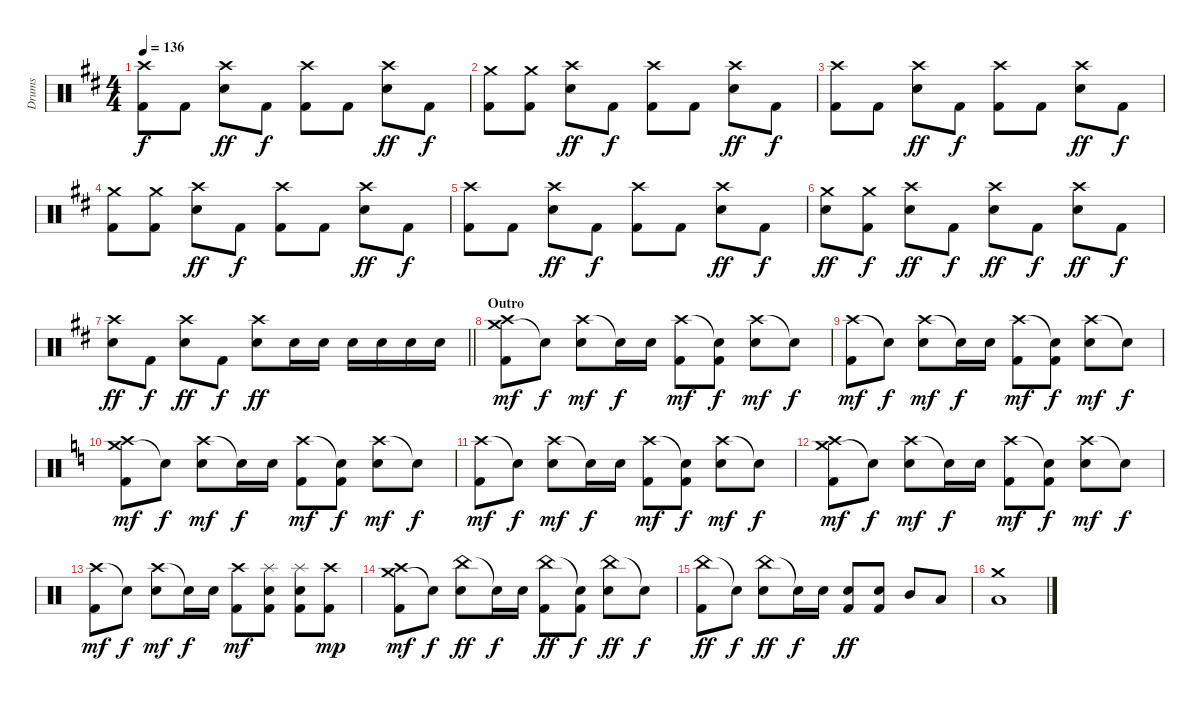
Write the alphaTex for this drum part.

\track ("Drums" "Drums") {instrument percussion}
\staff {score}
\articulation defaults
\ts (4 4)
\tempo 136
\clef neutral
\ks d
("Crash high (hit)" "Kick (hit) 2").8{dy f} "Kick (hit) 2".8 ("Crash high (hit)" "Electric Snare (hit)").8{dy ff} "Kick (hit) 2".8{dy f} ("Crash high (hit)" "Kick (hit) 2").8 "Kick (hit) 2".8 ("Crash high (hit)" "Electric Snare (hit)").8{dy ff} "Kick (hit) 2".8{dy f} |
("Crash medium (hit)" "Kick (hit) 2").8 ("Crash medium (hit)" "Kick (hit) 2").8 ("Crash high (hit)" "Electric Snare (hit)").8{dy ff} "Kick (hit) 2".8{dy f} ("Crash high (hit)" "Kick (hit) 2").8 "Kick (hit) 2".8 ("Crash high (hit)" "Electric Snare (hit)").8{dy ff} "Kick (hit) 2".8{dy f} |
("Crash high (hit)" "Kick (hit) 2").8 "Kick (hit) 2".8 ("Crash high (hit)" "Electric Snare (hit)").8{dy ff} "Kick (hit) 2".8{dy f} ("Crash high (hit)" "Kick (hit) 2").8 "Kick (hit) 2".8 ("Crash high (hit)" "Electric Snare (hit)").8{dy ff} "Kick (hit) 2".8{dy f} |
("Crash medium (hit)" "Kick (hit) 2").8 ("Crash medium (hit)" "Kick (hit) 2").8 ("Crash high (hit)" "Electric Snare (hit)").8{dy ff} "Kick (hit) 2".8{dy f} ("Crash high (hit)" "Kick (hit) 2").8 "Kick (hit) 2".8 ("Crash high (hit)" "Electric Snare (hit)").8{dy ff} "Kick (hit) 2".8{dy f} |
("Crash high (hit)" "Kick (hit) 2").8 "Kick (hit) 2".8 ("Crash high (hit)" "Electric Snare (hit)").8{dy ff} "Kick (hit) 2".8{dy f} ("Crash high (hit)" "Kick (hit) 2").8 "Kick (hit) 2".8 ("Crash high (hit)" "Electric Snare (hit)").8{dy ff} "Kick (hit) 2".8{dy f} |
("Crash medium (hit)" "Electric Snare (hit)").8{dy ff} ("Crash medium (hit)" "Kick (hit) 2").8{dy f} ("Crash high (hit)" "Electric Snare (hit)").8{dy ff} "Kick (hit) 2".8{dy f} ("Crash high (hit)" "Electric Snare (hit)").8{dy ff} "Kick (hit) 2".8{dy f} ("Crash high (hit)" "Electric Snare (hit)").8{dy ff} "Kick (hit) 2".8{dy f} |
\barLineRight lightlight
("Crash high (hit)" "Electric Snare (hit)").8{dy ff} "Kick (hit) 2".8{dy f} ("Crash high (hit)" "Electric Snare (hit)").8{dy ff} "Kick (hit) 2".8{dy f} ("Crash high (hit)" "Electric Snare (hit)").8{dy ff} "Electric Snare (hit)".16 "Electric Snare (hit)".16 "Electric Snare (hit)".16 "Electric Snare (hit)".16 "Electric Snare (hit)".16 "Electric Snare (hit)".16 |
\section ("" "Outro")
("Crash medium (hit)" "Crash high (hit)" "Kick (hit) 2").8{dy mf} "Snare (hit)"{t}.8{dy f} ("Crash high (hit)" "Electric Snare (hit)").8{dy mf} "Snare (hit)"{t}.16{dy f} "Electric Snare (hit)".16 ("Crash high (hit)" "Kick (hit) 2").8{dy mf} ("Snare (hit)"{t} "Kick (hit) 2").8{dy f} ("Crash high (hit)" "Electric Snare (hit)").8{dy mf} "Snare (hit)"{t}.8{dy f} |
("Crash high (hit)" "Kick (hit) 2").8{dy mf} "Snare (hit)"{t}.8{dy f} ("Crash high (hit)" "Electric Snare (hit)").8{dy mf} "Snare (hit)"{t}.16{dy f} "Electric Snare (hit)".16 ("Crash high (hit)" "Kick (hit) 2").8{dy mf} ("Snare (hit)"{t} "Kick (hit) 2").8{dy f} ("Crash high (hit)" "Electric Snare (hit)").8{dy mf} "Snare (hit)"{t}.8{dy f} |
\ks c
("Crash medium (hit)" "Crash high (hit)" "Kick (hit) 2").8{dy mf} "Snare (hit)"{t}.8{dy f} ("Crash high (hit)" "Electric Snare (hit)").8{dy mf} "Snare (hit)"{t}.16{dy f} "Electric Snare (hit)".16 ("Crash high (hit)" "Kick (hit) 2").8{dy mf} ("Snare (hit)"{t} "Kick (hit) 2").8{dy f} ("Crash high (hit)" "Electric Snare (hit)").8{dy mf} "Snare (hit)"{t}.8{dy f} |
("Crash high (hit)" "Kick (hit) 2").8{dy mf} "Snare (hit)"{t}.8{dy f} ("Crash high (hit)" "Electric Snare (hit)").8{dy mf} "Snare (hit)"{t}.16{dy f} "Electric Snare (hit)".16 ("Crash high (hit)" "Kick (hit) 2").8{dy mf} ("Snare (hit)"{t} "Kick (hit) 2").8{dy f} ("Crash high (hit)" "Electric Snare (hit)").8{dy mf} "Snare (hit)"{t}.8{dy f} |
("Crash medium (hit)" "Crash high (hit)" "Kick (hit) 2").8{dy mf} "Snare (hit)"{t}.8{dy f} ("Crash high (hit)" "Electric Snare (hit)").8{dy mf} "Snare (hit)"{t}.16{dy f} "Electric Snare (hit)".16 ("Crash high (hit)" "Kick (hit) 2").8{dy mf} ("Snare (hit)"{t} "Kick (hit) 2").8{dy f} ("Crash high (hit)" "Electric Snare (hit)").8{dy mf} "Snare (hit)"{t}.8{dy f} |
("Crash high (hit)" "Kick (hit) 2").8{dy mf} "Snare (hit)"{t}.8{dy f} ("Crash high (hit)" "Electric Snare (hit)").8{dy mf} "Snare (hit)"{t}.16{dy f} "Electric Snare (hit)".16 ("Crash high (hit)" "Kick (hit) 2").8{dy mf} ("Splash (hit)" "Electric Snare (hit)" "Kick (hit) 2").8 ("Splash (hit)" "Electric Snare (hit)" "Kick (hit) 2").8 ("Crash high (hit)" "Kick (hit) 2").8{dy mp} |
("Crash medium (hit)" "Crash high (hit)" "Kick (hit) 2").8{dy mf} "Snare (hit)"{t}.8{dy f} ("China (hit)" "Electric Snare (hit)").8{dy ff} "Snare (hit)"{t}.16{dy f} "Electric Snare (hit)".16 ("China (hit)" "Kick (hit) 2").8{dy ff} ("Snare (hit)"{t} "Kick (hit) 2").8{dy f} ("China (hit)" "Electric Snare (hit)").8{dy ff} "Snare (hit)"{t}.8{dy f} |
("China (hit)" "Kick (hit) 2").8{dy ff} "Snare (hit)"{t}.8{dy f} ("China (hit)" "Electric Snare (hit)").8{dy ff} "Snare (hit)"{t}.16{dy f} "Electric Snare (hit)".16 ("Electric Snare (hit)" "Kick (hit) 2").8{dy ff} ("Electric Snare (hit)" "Kick (hit) 2").8 "Mid Tom (hit)".8 "Low Tom (hit)".8 |
("Crash medium (hit)" "Low Floor Tom (hit)").1
